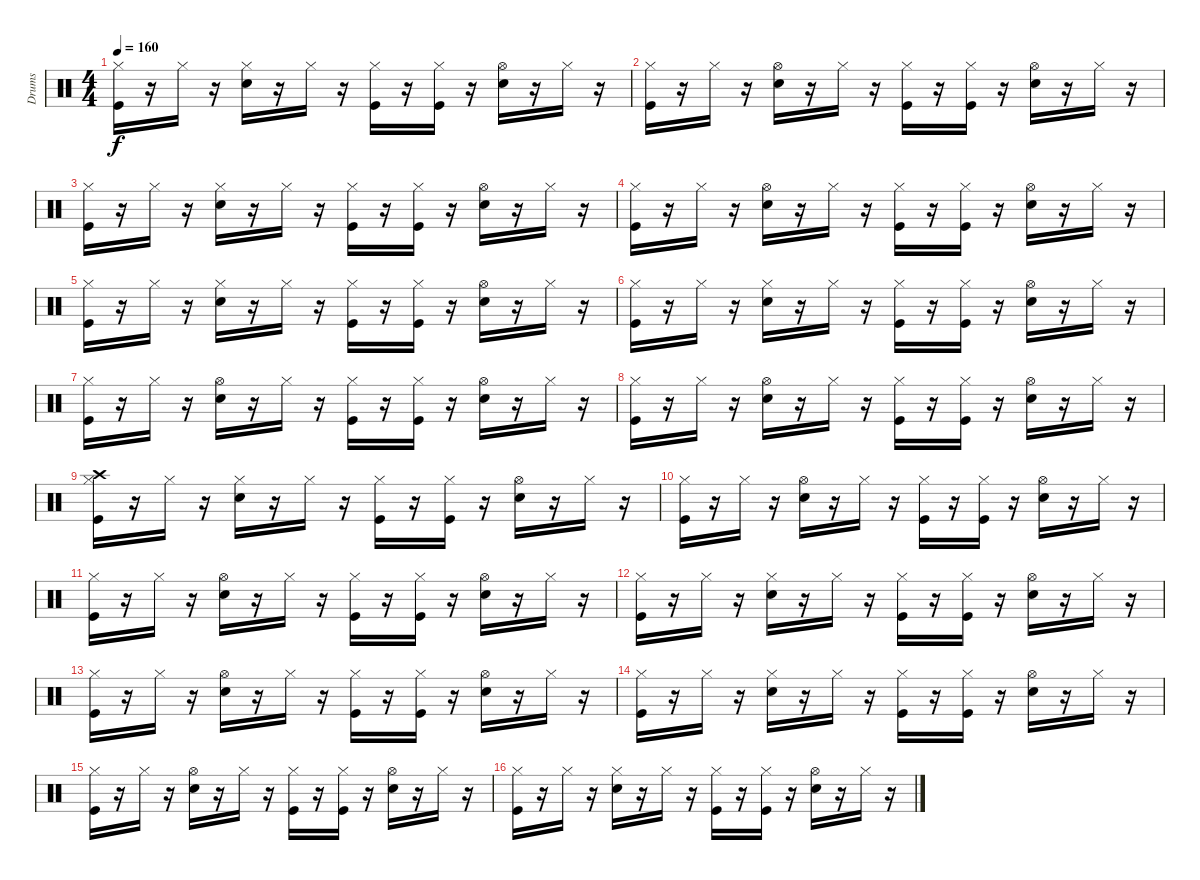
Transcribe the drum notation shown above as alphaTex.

\track ("Drums" "Drums") {instrument percussion}
\staff {score}
\articulation defaults
\ts (4 4)
\tempo 160
\clef neutral
\ks c
("Hi-Hat (closed)" "Kick (hit)").16{dy f} r.16 "Hi-Hat (closed)".16 r.16 ("Hi-Hat (closed)" "Snare (hit) 2").16 r.16 "Hi-Hat (closed)".16 r.16 ("Hi-Hat (closed)" "Kick (hit)").16 r.16 ("Kick (hit)" "Hi-Hat (closed)").16 r.16 ("Hi-Hat (open)" "Snare (hit) 2").16 r.16 "Hi-Hat (closed)".16 r.16 |
("Hi-Hat (closed)" "Kick (hit)").16 r.16 "Hi-Hat (closed)".16 r.16 ("Hi-Hat (open)" "Snare (hit) 2").16 r.16 "Hi-Hat (closed)".16 r.16 ("Hi-Hat (closed)" "Kick (hit)").16 r.16 ("Kick (hit)" "Hi-Hat (closed)").16 r.16 ("Hi-Hat (open)" "Snare (hit) 2").16 r.16 "Hi-Hat (closed)".16 r.16 |
("Hi-Hat (closed)" "Kick (hit)").16 r.16 "Hi-Hat (closed)".16 r.16 ("Hi-Hat (closed)" "Snare (hit) 2").16 r.16 "Hi-Hat (closed)".16 r.16 ("Hi-Hat (closed)" "Kick (hit)").16 r.16 ("Kick (hit)" "Hi-Hat (closed)").16 r.16 ("Hi-Hat (open)" "Snare (hit) 2").16 r.16 "Hi-Hat (closed)".16 r.16 |
("Hi-Hat (closed)" "Kick (hit)").16 r.16 "Hi-Hat (closed)".16 r.16 ("Hi-Hat (open)" "Snare (hit) 2").16 r.16 "Hi-Hat (closed)".16 r.16 ("Hi-Hat (closed)" "Kick (hit)").16 r.16 ("Kick (hit)" "Hi-Hat (closed)").16 r.16 ("Hi-Hat (open)" "Snare (hit) 2").16 r.16 "Hi-Hat (closed)".16 r.16 |
("Hi-Hat (closed)" "Kick (hit)").16 r.16 "Hi-Hat (closed)".16 r.16 ("Hi-Hat (closed)" "Snare (hit) 2").16 r.16 "Hi-Hat (closed)".16 r.16 ("Hi-Hat (closed)" "Kick (hit)").16 r.16 ("Kick (hit)" "Hi-Hat (closed)").16 r.16 ("Hi-Hat (open)" "Snare (hit) 2").16 r.16 "Hi-Hat (closed)".16 r.16 |
("Hi-Hat (closed)" "Kick (hit)").16 r.16 "Hi-Hat (closed)".16 r.16 ("Hi-Hat (closed)" "Snare (hit) 2").16 r.16 "Hi-Hat (closed)".16 r.16 ("Hi-Hat (closed)" "Kick (hit)").16 r.16 ("Kick (hit)" "Hi-Hat (closed)").16 r.16 ("Hi-Hat (open)" "Snare (hit) 2").16 r.16 "Hi-Hat (closed)".16 r.16 |
("Hi-Hat (closed)" "Kick (hit)").16 r.16 "Hi-Hat (closed)".16 r.16 ("Hi-Hat (open)" "Snare (hit) 2").16 r.16 "Hi-Hat (closed)".16 r.16 ("Hi-Hat (closed)" "Kick (hit)").16 r.16 ("Kick (hit)" "Hi-Hat (closed)").16 r.16 ("Hi-Hat (open)" "Snare (hit) 2").16 r.16 "Hi-Hat (closed)".16 r.16 |
("Hi-Hat (closed)" "Kick (hit)").16 r.16 "Hi-Hat (closed)".16 r.16 ("Hi-Hat (open)" "Snare (hit) 2").16 r.16 "Hi-Hat (closed)".16 r.16 ("Hi-Hat (closed)" "Kick (hit)").16 r.16 ("Kick (hit)" "Hi-Hat (closed)").16 r.16 ("Hi-Hat (open)" "Snare (hit) 2").16 r.16 "Hi-Hat (closed)".16 r.16 |
("Crash high (hit)" "Hi-Hat (closed)" "Kick (hit)").16 r.16 "Hi-Hat (closed)".16 r.16 ("Hi-Hat (closed)" "Snare (hit) 2").16 r.16 "Hi-Hat (closed)".16 r.16 ("Hi-Hat (closed)" "Kick (hit)").16 r.16 ("Kick (hit)" "Hi-Hat (closed)").16 r.16 ("Hi-Hat (open)" "Snare (hit) 2").16 r.16 "Hi-Hat (closed)".16 r.16 |
("Hi-Hat (closed)" "Kick (hit)").16 r.16 "Hi-Hat (closed)".16 r.16 ("Hi-Hat (open)" "Snare (hit) 2").16 r.16 "Hi-Hat (closed)".16 r.16 ("Hi-Hat (closed)" "Kick (hit)").16 r.16 ("Kick (hit)" "Hi-Hat (closed)").16 r.16 ("Hi-Hat (open)" "Snare (hit) 2").16 r.16 "Hi-Hat (closed)".16 r.16 |
("Hi-Hat (closed)" "Kick (hit)").16 r.16 "Hi-Hat (closed)".16 r.16 ("Hi-Hat (open)" "Snare (hit) 2").16 r.16 "Hi-Hat (closed)".16 r.16 ("Hi-Hat (closed)" "Kick (hit)").16 r.16 ("Kick (hit)" "Hi-Hat (closed)").16 r.16 ("Hi-Hat (open)" "Snare (hit) 2").16 r.16 "Hi-Hat (closed)".16 r.16 |
("Hi-Hat (closed)" "Kick (hit)").16 r.16 "Hi-Hat (closed)".16 r.16 ("Hi-Hat (closed)" "Snare (hit) 2").16 r.16 "Hi-Hat (closed)".16 r.16 ("Hi-Hat (closed)" "Kick (hit)").16 r.16 ("Kick (hit)" "Hi-Hat (closed)").16 r.16 ("Hi-Hat (open)" "Snare (hit) 2").16 r.16 "Hi-Hat (closed)".16 r.16 |
("Hi-Hat (closed)" "Kick (hit)").16 r.16 "Hi-Hat (closed)".16 r.16 ("Hi-Hat (open)" "Snare (hit) 2").16 r.16 "Hi-Hat (closed)".16 r.16 ("Hi-Hat (closed)" "Kick (hit)").16 r.16 ("Kick (hit)" "Hi-Hat (closed)").16 r.16 ("Hi-Hat (open)" "Snare (hit) 2").16 r.16 "Hi-Hat (closed)".16 r.16 |
("Hi-Hat (closed)" "Kick (hit)").16 r.16 "Hi-Hat (closed)".16 r.16 ("Hi-Hat (closed)" "Snare (hit) 2").16 r.16 "Hi-Hat (closed)".16 r.16 ("Hi-Hat (closed)" "Kick (hit)").16 r.16 ("Kick (hit)" "Hi-Hat (closed)").16 r.16 ("Hi-Hat (open)" "Snare (hit) 2").16 r.16 "Hi-Hat (closed)".16 r.16 |
("Hi-Hat (closed)" "Kick (hit)").16 r.16 "Hi-Hat (closed)".16 r.16 ("Hi-Hat (open)" "Snare (hit) 2").16 r.16 "Hi-Hat (closed)".16 r.16 ("Hi-Hat (closed)" "Kick (hit)").16 r.16 ("Kick (hit)" "Hi-Hat (closed)").16 r.16 ("Hi-Hat (open)" "Snare (hit) 2").16 r.16 "Hi-Hat (closed)".16 r.16 |
("Hi-Hat (closed)" "Kick (hit)").16 r.16 "Hi-Hat (closed)".16 r.16 ("Hi-Hat (closed)" "Snare (hit) 2").16 r.16 "Hi-Hat (closed)".16 r.16 ("Hi-Hat (closed)" "Kick (hit)").16 r.16 ("Kick (hit)" "Hi-Hat (closed)").16 r.16 ("Hi-Hat (open)" "Snare (hit) 2").16 r.16 "Hi-Hat (closed)".16 r.16
